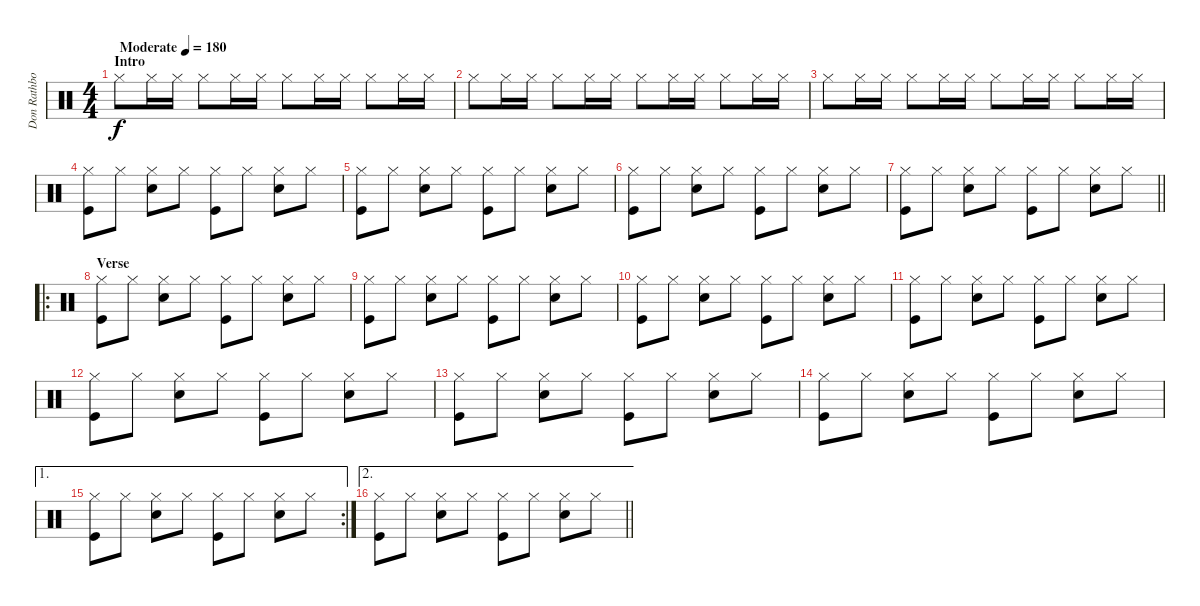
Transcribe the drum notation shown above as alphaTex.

\track ("Don Rathbone" "Don Rathbo") {instrument percussion}
\staff {score}
\articulation defaults
\ts (4 4)
\section ("" "Intro")
\tempo (180 "Moderate")
\clef neutral
\ks c "Hi-Hat (closed)".8{dy f} "Hi-Hat (closed)".16 "Hi-Hat (closed)".16 "Hi-Hat (closed)".8 "Hi-Hat (closed)".16 "Hi-Hat (closed)".16 "Hi-Hat (closed)".8 "Hi-Hat (closed)".16 "Hi-Hat (closed)".16 "Hi-Hat (closed)".8 "Hi-Hat (closed)".16 "Hi-Hat (closed)".16
|
"Hi-Hat (closed)".8 "Hi-Hat (closed)".16 "Hi-Hat (closed)".16 "Hi-Hat (closed)".8 "Hi-Hat (closed)".16 "Hi-Hat (closed)".16 "Hi-Hat (closed)".8 "Hi-Hat (closed)".16 "Hi-Hat (closed)".16 "Hi-Hat (closed)".8 "Hi-Hat (closed)".16 "Hi-Hat (closed)".16 |
"Hi-Hat (closed)".8 "Hi-Hat (closed)".16 "Hi-Hat (closed)".16 "Hi-Hat (closed)".8 "Hi-Hat (closed)".16 "Hi-Hat (closed)".16 "Hi-Hat (closed)".8 "Hi-Hat (closed)".16 "Hi-Hat (closed)".16 "Hi-Hat (closed)".8 "Hi-Hat (closed)".16 "Hi-Hat (closed)".16 |
("Hi-Hat (closed)" "Kick (hit)").8 "Hi-Hat (closed)".8 ("Hi-Hat (closed)" "Snare (hit) 2").8 "Hi-Hat (closed)".8 ("Hi-Hat (closed)" "Kick (hit)").8 "Hi-Hat (closed)".8 ("Hi-Hat (closed)" "Snare (hit) 2").8 "Hi-Hat (closed)".8 |
("Hi-Hat (closed)" "Kick (hit)").8 "Hi-Hat (closed)".8 ("Hi-Hat (closed)" "Snare (hit) 2").8 "Hi-Hat (closed)".8 ("Hi-Hat (closed)" "Kick (hit)").8 "Hi-Hat (closed)".8 ("Hi-Hat (closed)" "Snare (hit) 2").8 "Hi-Hat (closed)".8 |
("Hi-Hat (closed)" "Kick (hit)").8 "Hi-Hat (closed)".8 ("Hi-Hat (closed)" "Snare (hit) 2").8 "Hi-Hat (closed)".8 ("Hi-Hat (closed)" "Kick (hit)").8 "Hi-Hat (closed)".8 ("Hi-Hat (closed)" "Snare (hit) 2").8 "Hi-Hat (closed)".8 |
\barLineRight lightlight
("Hi-Hat (closed)" "Kick (hit)").8 "Hi-Hat (closed)".8 ("Hi-Hat (closed)" "Snare (hit) 2").8 "Hi-Hat (closed)".8 ("Hi-Hat (closed)" "Kick (hit)").8 "Hi-Hat (closed)".8 ("Hi-Hat (closed)" "Snare (hit) 2").8 "Hi-Hat (closed)".8 |
\ro
\section ("" "Verse")
("Hi-Hat (closed)" "Kick (hit)").8 "Hi-Hat (closed)".8 ("Hi-Hat (closed)" "Snare (hit) 2").8 "Hi-Hat (closed)".8 ("Hi-Hat (closed)" "Kick (hit)").8 "Hi-Hat (closed)".8 ("Hi-Hat (closed)" "Snare (hit) 2").8 "Hi-Hat (closed)".8 |
("Hi-Hat (closed)" "Kick (hit)").8 "Hi-Hat (closed)".8 ("Hi-Hat (closed)" "Snare (hit) 2").8 "Hi-Hat (closed)".8 ("Hi-Hat (closed)" "Kick (hit)").8 "Hi-Hat (closed)".8 ("Hi-Hat (closed)" "Snare (hit) 2").8 "Hi-Hat (closed)".8 |
("Hi-Hat (closed)" "Kick (hit)").8 "Hi-Hat (closed)".8 ("Hi-Hat (closed)" "Snare (hit) 2").8 "Hi-Hat (closed)".8 ("Hi-Hat (closed)" "Kick (hit)").8 "Hi-Hat (closed)".8 ("Hi-Hat (closed)" "Snare (hit) 2").8 "Hi-Hat (closed)".8 |
("Hi-Hat (closed)" "Kick (hit)").8 "Hi-Hat (closed)".8 ("Hi-Hat (closed)" "Snare (hit) 2").8 "Hi-Hat (closed)".8 ("Hi-Hat (closed)" "Kick (hit)").8 "Hi-Hat (closed)".8 ("Hi-Hat (closed)" "Snare (hit) 2").8 "Hi-Hat (closed)".8 |
("Hi-Hat (closed)" "Kick (hit)").8 "Hi-Hat (closed)".8 ("Hi-Hat (closed)" "Snare (hit) 2").8 "Hi-Hat (closed)".8 ("Hi-Hat (closed)" "Kick (hit)").8 "Hi-Hat (closed)".8 ("Hi-Hat (closed)" "Snare (hit) 2").8 "Hi-Hat (closed)".8 |
("Hi-Hat (closed)" "Kick (hit)").8 "Hi-Hat (closed)".8 ("Hi-Hat (closed)" "Snare (hit) 2").8 "Hi-Hat (closed)".8 ("Hi-Hat (closed)" "Kick (hit)").8 "Hi-Hat (closed)".8 ("Hi-Hat (closed)" "Snare (hit) 2").8 "Hi-Hat (closed)".8 |
("Hi-Hat (closed)" "Kick (hit)").8 "Hi-Hat (closed)".8 ("Hi-Hat (closed)" "Snare (hit) 2").8 "Hi-Hat (closed)".8 ("Hi-Hat (closed)" "Kick (hit)").8 "Hi-Hat (closed)".8 ("Hi-Hat (closed)" "Snare (hit) 2").8 "Hi-Hat (closed)".8 |
\ae 1
\rc 2
("Hi-Hat (closed)" "Kick (hit)").8 "Hi-Hat (closed)".8 ("Hi-Hat (closed)" "Snare (hit) 2").8 "Hi-Hat (closed)".8 ("Hi-Hat (closed)" "Kick (hit)").8 "Hi-Hat (closed)".8 ("Hi-Hat (closed)" "Snare (hit) 2").8 "Hi-Hat (closed)".8 |
\ae 2
\barLineRight lightlight
("Hi-Hat (closed)" "Kick (hit)").8 "Hi-Hat (closed)".8 ("Hi-Hat (closed)" "Snare (hit) 2").8 "Hi-Hat (closed)".8 ("Hi-Hat (closed)" "Kick (hit)").8 "Hi-Hat (closed)".8 ("Hi-Hat (closed)" "Snare (hit) 2").8 "Hi-Hat (closed)".8
